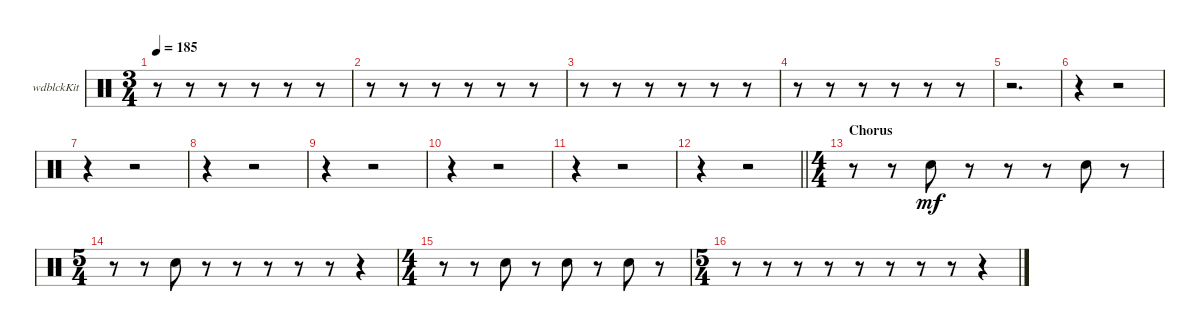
\bracketExtendMode groupsimilarinstruments
\firstSystemTrackNameOrientation horizontal
\otherSystemsTrackNameOrientation horizontal
\track ("Woodblock" "wdblckKit") {instrument percussion}
\staff {score}
\articulation defaults
\ts (3 4)
\tempo 185
\clef neutral
\ks c
r.8{dy mp} r.8 r.8 r.8 r.8 r.8 |
r.8 r.8 r.8 r.8 r.8 r.8 |
r.8 r.8 r.8 r.8 r.8 r.8 |
r.8 r.8 r.8 r.8 r.8 r.8 |
r.2{d} |
r.4 r.2 |
r.4 r.2 |
r.4 r.2 |
r.4 r.2 |
r.4 r.2 |
r.4 r.2 |
\barLineRight lightlight
r.4 r.2 |
\ts (4 4)
\beaming (8 2 2 2 2)
\section ("" "Chorus")
r.8 r.8 "Snare (hit) 2".8{dy mf} r.8 r.8 r.8 "Snare (hit) 2".8 r.8 |
\ts (5 4)
\beaming (8 2 2 2 4)
r.8 r.8 "Snare (hit) 2".8 r.8 r.8 r.8 r.8 r.8 r.4 |
\ts (4 4)
\beaming (8 2 2 2 2)
r.8 r.8 "Snare (hit) 2".8 r.8 "Snare (hit) 2".8 r.8 "Snare (hit) 2".8 r.8 |
\ts (5 4)
\beaming (8 2 2 2 4)
r.8 r.8 r.8 r.8 r.8 r.8 r.8 r.8 r.4
